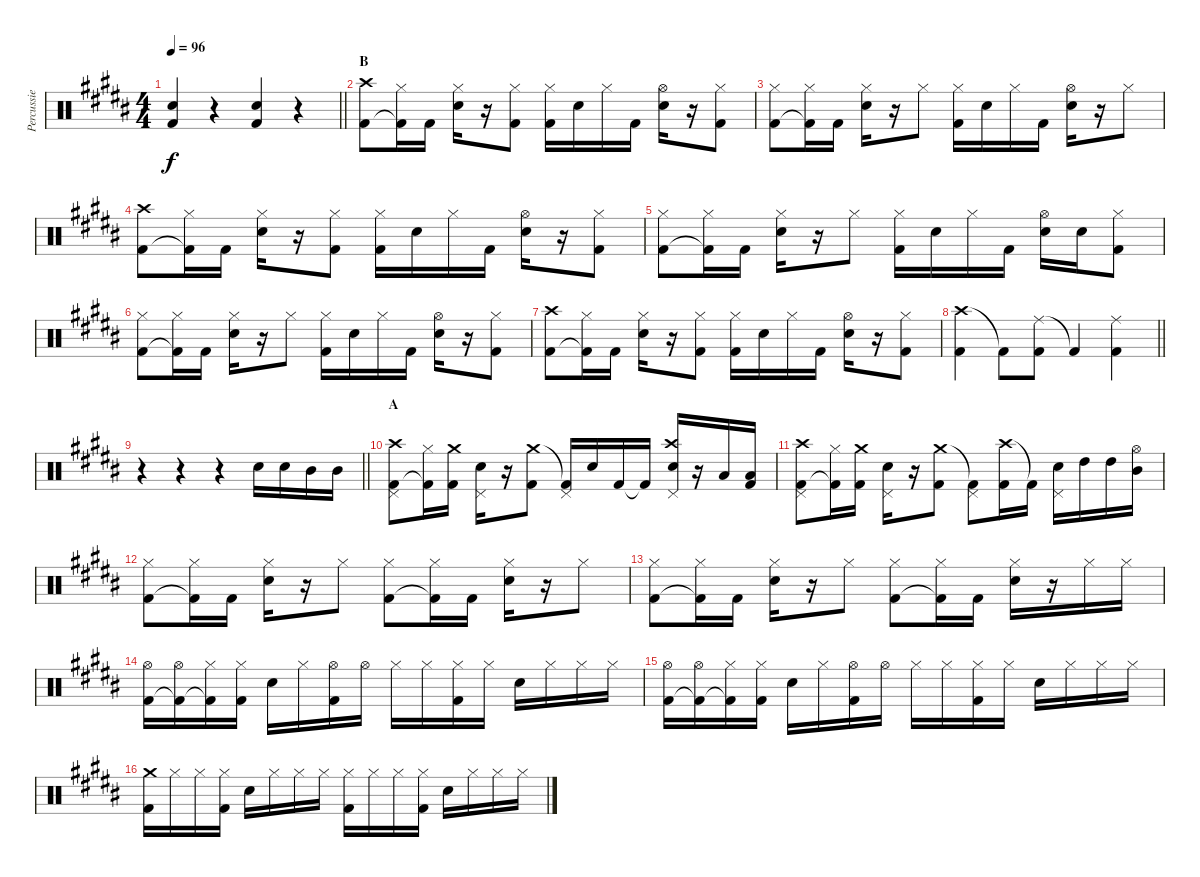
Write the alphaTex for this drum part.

\track ("Percussie" "Percussie") {instrument percussion}
\staff {score}
\articulation defaults
\ts (4 4)
\tempo 96
\clef neutral
\barLineRight lightlight
\ks b
("Electric Snare (hit)" "Kick (hit) 2").4{dy f} r.4 ("Electric Snare (hit)" "Kick (hit) 2").4 r.4 |
\section ("" "B")
("Crash high (hit)" "Kick (hit) 2").8 ("Hi-Hat (closed)" "Kick (hit) 2"{t}).16 "Kick (hit) 2".16 ("Hi-Hat (closed)" "Electric Snare (hit)").16 r.16 ("Hi-Hat (closed)" "Kick (hit) 2").8 ("Hi-Hat (closed)" "Kick (hit) 2").16 "Electric Snare (hit)".16 "Hi-Hat (closed)".16 "Kick (hit) 2".16 ("Hi-Hat (open)" "Electric Snare (hit)").16 r.16 ("Hi-Hat (closed)" "Kick (hit) 2").8 |
("Hi-Hat (closed)" "Kick (hit) 2").8 ("Hi-Hat (closed)" "Kick (hit) 2"{t}).16 "Kick (hit) 2".16 ("Hi-Hat (closed)" "Electric Snare (hit)").16 r.16 "Hi-Hat (closed)".8 ("Hi-Hat (closed)" "Kick (hit) 2").16 "Electric Snare (hit)".16 "Hi-Hat (closed)".16 "Kick (hit) 2".16 ("Hi-Hat (open)" "Electric Snare (hit)").16 r.16 "Hi-Hat (closed)".8 |
("Crash high (hit)" "Kick (hit) 2").8 ("Hi-Hat (closed)" "Kick (hit) 2"{t}).16 "Kick (hit) 2".16 ("Hi-Hat (closed)" "Electric Snare (hit)").16 r.16 ("Hi-Hat (closed)" "Kick (hit) 2").8 ("Hi-Hat (closed)" "Kick (hit) 2").16 "Electric Snare (hit)".16 "Hi-Hat (closed)".16 "Kick (hit) 2".16 ("Hi-Hat (open)" "Electric Snare (hit)").16 r.16 ("Hi-Hat (closed)" "Kick (hit) 2").8 |
("Hi-Hat (closed)" "Kick (hit) 2").8 ("Hi-Hat (closed)" "Kick (hit) 2"{t}).16 "Kick (hit) 2".16 ("Hi-Hat (closed)" "Electric Snare (hit)").16 r.16 "Hi-Hat (closed)".8 ("Hi-Hat (closed)" "Kick (hit) 2").16 "Electric Snare (hit)".16 "Hi-Hat (closed)".16 "Kick (hit) 2".16 ("Hi-Hat (open)" "Electric Snare (hit)").16 "Electric Snare (hit)".16 ("Hi-Hat (closed)" "Kick (hit) 2").8 |
("Hi-Hat (closed)" "Kick (hit) 2").8 ("Hi-Hat (closed)" "Kick (hit) 2"{t}).16 "Kick (hit) 2".16 ("Hi-Hat (closed)" "Electric Snare (hit)").16 r.16 "Hi-Hat (closed)".8 ("Hi-Hat (closed)" "Kick (hit) 2").16 "Electric Snare (hit)".16 "Hi-Hat (closed)".16 "Kick (hit) 2".16 ("Hi-Hat (open)" "Electric Snare (hit)").16 r.16 ("Hi-Hat (closed)" "Kick (hit) 2").8 |
("Crash high (hit)" "Kick (hit) 2").8 ("Hi-Hat (closed)" "Kick (hit) 2"{t}).16 "Kick (hit) 2".16 ("Hi-Hat (closed)" "Electric Snare (hit)").16 r.16 ("Hi-Hat (closed)" "Kick (hit) 2").8 ("Hi-Hat (closed)" "Kick (hit) 2").16 "Electric Snare (hit)".16 "Hi-Hat (closed)".16 "Kick (hit) 2".16 ("Hi-Hat (open)" "Electric Snare (hit)").16 r.16 ("Hi-Hat (closed)" "Kick (hit) 2").8 |
\barLineRight lightlight
("Crash high (hit)" "Kick (hit) 2").4 "Kick (hit) 2"{t}.8 ("Ride (middle)" "Kick (hit) 2").8 "Kick (hit) 2"{t}.4 ("Ride (middle)" "Kick (hit) 2").4 |
\barLineRight lightlight
r.4 r.4 r.4 "Electric Snare (hit)".16 "Electric Snare (hit)".16 "Mid Tom (hit)".16 "Mid Tom (hit)".16 |
\section ("" "A")
("Crash high (hit)" "Kick (hit) 2" "Pedal Hi-Hat (hit)").8 ("Hi-Hat (closed)" "Kick (hit) 2"{t}).16 ("Crash medium (hit)" "Kick (hit) 2").16 ("Electric Snare (hit)" "Pedal Hi-Hat (hit)").16 r.16 ("Crash medium (hit)" "Kick (hit) 2").8 ("Kick (hit) 2"{t} "Pedal Hi-Hat (hit)").16 "Electric Snare (hit)".16 "Kick (hit) 2".16 "Kick (hit) 2"{t}.16 ("Crash high (hit)" "Electric Snare (hit)" "Pedal Hi-Hat (hit)").16 r.16 "Low Tom (hit)".16 ("Low Tom (hit)" "Kick (hit) 2").16 |
("Crash high (hit)" "Kick (hit) 2" "Pedal Hi-Hat (hit)").8 ("Hi-Hat (closed)" "Kick (hit) 2"{t}).16 ("Crash medium (hit)" "Kick (hit) 2").16 ("Electric Snare (hit)" "Pedal Hi-Hat (hit)").16 r.16 ("Crash medium (hit)" "Kick (hit) 2").8 ("Kick (hit) 2"{t} "Pedal Hi-Hat (hit)").8 ("Crash high (hit)" "Kick (hit) 2").16 "Kick (hit) 2"{t}.16 ("Electric Snare (hit)" "Pedal Hi-Hat (hit)").16 "High Tom (hit)".16 "High Tom (hit)".16 ("Hi-Hat (open)" "Mid Tom (hit)").16 |
("Hi-Hat (closed)" "Kick (hit) 2").8 ("Hi-Hat (closed)" "Kick (hit) 2"{t}).16 "Kick (hit) 2".16 ("Hi-Hat (closed)" "Electric Snare (hit)").16 r.16 "Hi-Hat (closed)".8 ("Hi-Hat (closed)" "Kick (hit) 2").8 ("Hi-Hat (closed)" "Kick (hit) 2"{t}).16 "Kick (hit) 2".16 ("Hi-Hat (closed)" "Electric Snare (hit)").16 r.16 "Hi-Hat (closed)".8 |
("Hi-Hat (closed)" "Kick (hit) 2").8 ("Hi-Hat (closed)" "Kick (hit) 2"{t}).16 "Kick (hit) 2".16 ("Hi-Hat (closed)" "Electric Snare (hit)").16 r.16 "Hi-Hat (closed)".8 ("Hi-Hat (closed)" "Kick (hit) 2").8 ("Hi-Hat (closed)" "Kick (hit) 2"{t}).16 "Kick (hit) 2".16 ("Hi-Hat (closed)" "Electric Snare (hit)").16 r.16 "Hi-Hat (closed)".16 "Hi-Hat (closed)".16 |
("Hi-Hat (open)" "Kick (hit) 2").16 ("Hi-Hat (open)" "Kick (hit) 2"{t}).16 ("Hi-Hat (closed)" "Kick (hit) 2"{t}).16 ("Hi-Hat (closed)" "Kick (hit) 2").16 "Electric Snare (hit)".16 "Hi-Hat (closed)".16 ("Hi-Hat (open)" "Kick (hit) 2").16 "Hi-Hat (open)".16 "Hi-Hat (closed)".16 "Hi-Hat (closed)".16 ("Hi-Hat (closed)" "Kick (hit) 2").16 "Hi-Hat (closed)".16 "Electric Snare (hit)".16 "Hi-Hat (closed)".16 "Hi-Hat (closed)".16 "Hi-Hat (closed)".16 |
("Hi-Hat (open)" "Kick (hit) 2").16 ("Hi-Hat (open)" "Kick (hit) 2"{t}).16 ("Hi-Hat (closed)" "Kick (hit) 2"{t}).16 ("Hi-Hat (closed)" "Kick (hit) 2").16 "Electric Snare (hit)".16 "Hi-Hat (closed)".16 ("Hi-Hat (open)" "Kick (hit) 2").16 "Hi-Hat (open)".16 "Hi-Hat (closed)".16 "Hi-Hat (closed)".16 ("Hi-Hat (closed)" "Kick (hit) 2").16 "Hi-Hat (closed)".16 "Electric Snare (hit)".16 "Hi-Hat (closed)".16 "Hi-Hat (closed)".16 "Hi-Hat (closed)".16 |
("Crash medium (hit)" "Kick (hit) 2").16 "Hi-Hat (closed)".16 "Hi-Hat (closed)".16 ("Hi-Hat (closed)" "Kick (hit) 2").16 "Electric Snare (hit)".16 "Hi-Hat (closed)".16 "Hi-Hat (closed)".16 "Hi-Hat (closed)".16 ("Hi-Hat (closed)" "Kick (hit) 2").16 "Hi-Hat (closed)".16 "Hi-Hat (closed)".16 ("Hi-Hat (closed)" "Kick (hit) 2").16 "Electric Snare (hit)".16 "Hi-Hat (closed)".16 "Hi-Hat (closed)".16 "Hi-Hat (closed)".16
